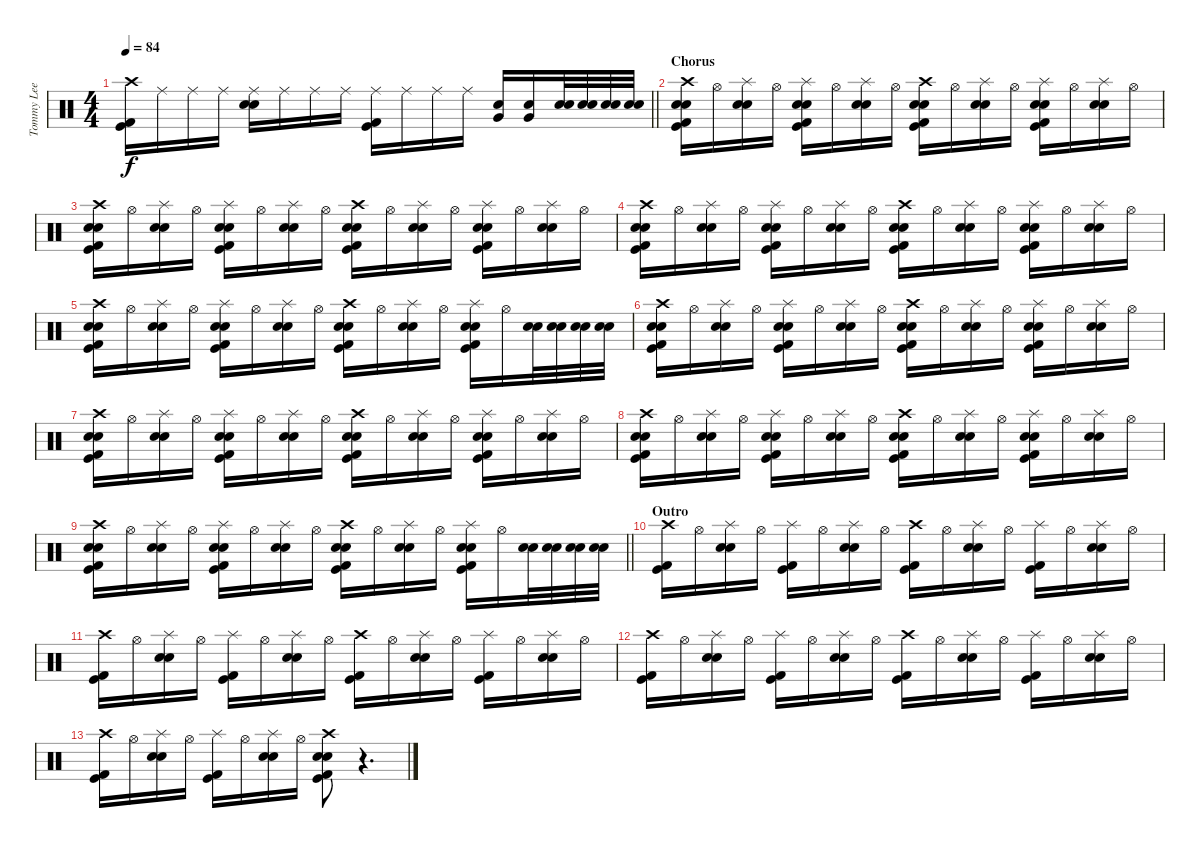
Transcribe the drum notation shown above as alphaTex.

\track ("Tommy Lee" "Tommy Lee") {instrument percussion}
\staff {score}
\articulation defaults
\ts (4 4)
\tempo 84
\clef neutral
\barLineRight lightlight
\ks c
("Crash high (hit)" "Kick (hit) 2" "Kick (hit)").16{dy f} "Ride (middle)".16 "Ride (middle)".16 "Ride (middle)".16 ("Ride (middle)" "Electric Snare (hit)" "Snare (hit) 2").16 "Ride (middle)".16 "Ride (middle)".16 "Ride (middle)".16 ("Ride (middle)" "Kick (hit) 2" "Kick (hit)").16 "Ride (middle)".16 "Ride (middle)".16 "Ride (middle)".16 ("Very Low Tom (hit)" "Snare (hit) 2").16 ("Very Low Tom (hit)" "Snare (hit) 2").16 ("Electric Snare (hit)" "Snare (hit) 2").32 ("Electric Snare (hit)" "Snare (hit) 2").32 ("Electric Snare (hit)" "Snare (hit) 2").32 ("Electric Snare (hit)" "Snare (hit) 2").32 |
\section ("" "Chorus")
("Crash high (hit)" "Electric Snare (hit)" "Snare (hit) 2" "Kick (hit) 2" "Kick (hit)").16 "Hi-Hat (open)".16 ("Splash (hit)" "Electric Snare (hit)" "Snare (hit) 2").16 "Hi-Hat (open)".16 ("Splash (hit)" "Electric Snare (hit)" "Snare (hit) 2" "Kick (hit) 2" "Kick (hit)").16 "Hi-Hat (open)".16 ("Splash (hit)" "Electric Snare (hit)" "Snare (hit) 2").16 "Hi-Hat (open)".16 ("Crash high (hit)" "Electric Snare (hit)" "Snare (hit) 2" "Kick (hit) 2" "Kick (hit)").16 "Hi-Hat (open)".16 ("Splash (hit)" "Electric Snare (hit)" "Snare (hit) 2").16 "Hi-Hat (open)".16 ("Splash (hit)" "Electric Snare (hit)" "Snare (hit) 2" "Kick (hit) 2" "Kick (hit)").16 "Hi-Hat (open)".16 ("Splash (hit)" "Electric Snare (hit)" "Snare (hit) 2").16 "Hi-Hat (open)".16 |
("Crash high (hit)" "Electric Snare (hit)" "Snare (hit) 2" "Kick (hit) 2" "Kick (hit)").16 "Hi-Hat (open)".16 ("Splash (hit)" "Electric Snare (hit)" "Snare (hit) 2").16 "Hi-Hat (open)".16 ("Splash (hit)" "Electric Snare (hit)" "Snare (hit) 2" "Kick (hit) 2" "Kick (hit)").16 "Hi-Hat (open)".16 ("Splash (hit)" "Electric Snare (hit)" "Snare (hit) 2").16 "Hi-Hat (open)".16 ("Crash high (hit)" "Electric Snare (hit)" "Snare (hit) 2" "Kick (hit) 2" "Kick (hit)").16 "Hi-Hat (open)".16 ("Splash (hit)" "Electric Snare (hit)" "Snare (hit) 2").16 "Hi-Hat (open)".16 ("Splash (hit)" "Electric Snare (hit)" "Snare (hit) 2" "Kick (hit) 2" "Kick (hit)").16 "Hi-Hat (open)".16 ("Splash (hit)" "Electric Snare (hit)" "Snare (hit) 2").16 "Hi-Hat (open)".16 |
("Crash high (hit)" "Electric Snare (hit)" "Snare (hit) 2" "Kick (hit) 2" "Kick (hit)").16 "Hi-Hat (open)".16 ("Splash (hit)" "Electric Snare (hit)" "Snare (hit) 2").16 "Hi-Hat (open)".16 ("Splash (hit)" "Electric Snare (hit)" "Snare (hit) 2" "Kick (hit) 2" "Kick (hit)").16 "Hi-Hat (open)".16 ("Splash (hit)" "Electric Snare (hit)" "Snare (hit) 2").16 "Hi-Hat (open)".16 ("Crash high (hit)" "Electric Snare (hit)" "Snare (hit) 2" "Kick (hit) 2" "Kick (hit)").16 "Hi-Hat (open)".16 ("Splash (hit)" "Electric Snare (hit)" "Snare (hit) 2").16 "Hi-Hat (open)".16 ("Splash (hit)" "Electric Snare (hit)" "Snare (hit) 2" "Kick (hit) 2" "Kick (hit)").16 "Hi-Hat (open)".16 ("Splash (hit)" "Electric Snare (hit)" "Snare (hit) 2").16 "Hi-Hat (open)".16 |
("Crash high (hit)" "Electric Snare (hit)" "Snare (hit) 2" "Kick (hit) 2" "Kick (hit)").16 "Hi-Hat (open)".16 ("Splash (hit)" "Electric Snare (hit)" "Snare (hit) 2").16 "Hi-Hat (open)".16 ("Splash (hit)" "Electric Snare (hit)" "Snare (hit) 2" "Kick (hit) 2" "Kick (hit)").16 "Hi-Hat (open)".16 ("Splash (hit)" "Electric Snare (hit)" "Snare (hit) 2").16 "Hi-Hat (open)".16 ("Crash high (hit)" "Electric Snare (hit)" "Snare (hit) 2" "Kick (hit) 2" "Kick (hit)").16 "Hi-Hat (open)".16 ("Splash (hit)" "Electric Snare (hit)" "Snare (hit) 2").16 "Hi-Hat (open)".16 ("Splash (hit)" "Electric Snare (hit)" "Snare (hit) 2" "Kick (hit) 2" "Kick (hit)").16 "Hi-Hat (open)".16 ("Electric Snare (hit)" "Snare (hit) 2").32 ("Electric Snare (hit)" "Snare (hit) 2").32 ("Electric Snare (hit)" "Snare (hit) 2").32 ("Electric Snare (hit)" "Snare (hit) 2").32 |
("Crash high (hit)" "Electric Snare (hit)" "Snare (hit) 2" "Kick (hit) 2" "Kick (hit)").16 "Hi-Hat (open)".16 ("Splash (hit)" "Electric Snare (hit)" "Snare (hit) 2").16 "Hi-Hat (open)".16 ("Splash (hit)" "Electric Snare (hit)" "Snare (hit) 2" "Kick (hit) 2" "Kick (hit)").16 "Hi-Hat (open)".16 ("Splash (hit)" "Electric Snare (hit)" "Snare (hit) 2").16 "Hi-Hat (open)".16 ("Crash high (hit)" "Electric Snare (hit)" "Snare (hit) 2" "Kick (hit) 2" "Kick (hit)").16 "Hi-Hat (open)".16 ("Splash (hit)" "Electric Snare (hit)" "Snare (hit) 2").16 "Hi-Hat (open)".16 ("Splash (hit)" "Electric Snare (hit)" "Snare (hit) 2" "Kick (hit) 2" "Kick (hit)").16 "Hi-Hat (open)".16 ("Splash (hit)" "Electric Snare (hit)" "Snare (hit) 2").16 "Hi-Hat (open)".16 |
("Crash high (hit)" "Electric Snare (hit)" "Snare (hit) 2" "Kick (hit) 2" "Kick (hit)").16 "Hi-Hat (open)".16 ("Splash (hit)" "Electric Snare (hit)" "Snare (hit) 2").16 "Hi-Hat (open)".16 ("Splash (hit)" "Electric Snare (hit)" "Snare (hit) 2" "Kick (hit) 2" "Kick (hit)").16 "Hi-Hat (open)".16 ("Splash (hit)" "Electric Snare (hit)" "Snare (hit) 2").16 "Hi-Hat (open)".16 ("Crash high (hit)" "Electric Snare (hit)" "Snare (hit) 2" "Kick (hit) 2" "Kick (hit)").16 "Hi-Hat (open)".16 ("Splash (hit)" "Electric Snare (hit)" "Snare (hit) 2").16 "Hi-Hat (open)".16 ("Splash (hit)" "Electric Snare (hit)" "Snare (hit) 2" "Kick (hit) 2" "Kick (hit)").16 "Hi-Hat (open)".16 ("Splash (hit)" "Electric Snare (hit)" "Snare (hit) 2").16 "Hi-Hat (open)".16 |
("Crash high (hit)" "Electric Snare (hit)" "Snare (hit) 2" "Kick (hit) 2" "Kick (hit)").16 "Hi-Hat (open)".16 ("Splash (hit)" "Electric Snare (hit)" "Snare (hit) 2").16 "Hi-Hat (open)".16 ("Splash (hit)" "Electric Snare (hit)" "Snare (hit) 2" "Kick (hit) 2" "Kick (hit)").16 "Hi-Hat (open)".16 ("Splash (hit)" "Electric Snare (hit)" "Snare (hit) 2").16 "Hi-Hat (open)".16 ("Crash high (hit)" "Electric Snare (hit)" "Snare (hit) 2" "Kick (hit) 2" "Kick (hit)").16 "Hi-Hat (open)".16 ("Splash (hit)" "Electric Snare (hit)" "Snare (hit) 2").16 "Hi-Hat (open)".16 ("Splash (hit)" "Electric Snare (hit)" "Snare (hit) 2" "Kick (hit) 2" "Kick (hit)").16 "Hi-Hat (open)".16 ("Splash (hit)" "Electric Snare (hit)" "Snare (hit) 2").16 "Hi-Hat (open)".16 |
\barLineRight lightlight
("Crash high (hit)" "Electric Snare (hit)" "Snare (hit) 2" "Kick (hit) 2" "Kick (hit)").16 "Hi-Hat (open)".16 ("Splash (hit)" "Electric Snare (hit)" "Snare (hit) 2").16 "Hi-Hat (open)".16 ("Splash (hit)" "Electric Snare (hit)" "Snare (hit) 2" "Kick (hit) 2" "Kick (hit)").16 "Hi-Hat (open)".16 ("Splash (hit)" "Electric Snare (hit)" "Snare (hit) 2").16 "Hi-Hat (open)".16 ("Crash high (hit)" "Electric Snare (hit)" "Snare (hit) 2" "Kick (hit) 2" "Kick (hit)").16 "Hi-Hat (open)".16 ("Splash (hit)" "Electric Snare (hit)" "Snare (hit) 2").16 "Hi-Hat (open)".16 ("Splash (hit)" "Electric Snare (hit)" "Snare (hit) 2" "Kick (hit) 2" "Kick (hit)").16 "Hi-Hat (open)".16 ("Electric Snare (hit)" "Snare (hit) 2").32 ("Electric Snare (hit)" "Snare (hit) 2").32 ("Electric Snare (hit)" "Snare (hit) 2").32 ("Electric Snare (hit)" "Snare (hit) 2").32 |
\section ("" "Outro")
("Crash high (hit)" "Kick (hit) 2" "Kick (hit)").16 "Hi-Hat (open)".16 ("Splash (hit)" "Electric Snare (hit)" "Snare (hit) 2").16 "Hi-Hat (open)".16 ("Splash (hit)" "Kick (hit) 2" "Kick (hit)").16 "Hi-Hat (open)".16 ("Splash (hit)" "Electric Snare (hit)" "Snare (hit) 2").16 "Hi-Hat (open)".16 ("Crash high (hit)" "Kick (hit) 2" "Kick (hit)").16 "Hi-Hat (open)".16 ("Splash (hit)" "Electric Snare (hit)" "Snare (hit) 2").16 "Hi-Hat (open)".16 ("Splash (hit)" "Kick (hit) 2" "Kick (hit)").16 "Hi-Hat (open)".16 ("Splash (hit)" "Electric Snare (hit)" "Snare (hit) 2").16 "Hi-Hat (open)".16 |
("Crash high (hit)" "Kick (hit) 2" "Kick (hit)").16 "Hi-Hat (open)".16 ("Splash (hit)" "Electric Snare (hit)" "Snare (hit) 2").16 "Hi-Hat (open)".16 ("Splash (hit)" "Kick (hit) 2" "Kick (hit)").16 "Hi-Hat (open)".16 ("Splash (hit)" "Electric Snare (hit)" "Snare (hit) 2").16 "Hi-Hat (open)".16 ("Crash high (hit)" "Kick (hit) 2" "Kick (hit)").16 "Hi-Hat (open)".16 ("Splash (hit)" "Electric Snare (hit)" "Snare (hit) 2").16 "Hi-Hat (open)".16 ("Splash (hit)" "Kick (hit) 2" "Kick (hit)").16 "Hi-Hat (open)".16 ("Splash (hit)" "Electric Snare (hit)" "Snare (hit) 2").16 "Hi-Hat (open)".16 |
("Crash high (hit)" "Kick (hit) 2" "Kick (hit)").16 "Hi-Hat (open)".16 ("Splash (hit)" "Electric Snare (hit)" "Snare (hit) 2").16 "Hi-Hat (open)".16 ("Splash (hit)" "Kick (hit) 2" "Kick (hit)").16 "Hi-Hat (open)".16 ("Splash (hit)" "Electric Snare (hit)" "Snare (hit) 2").16 "Hi-Hat (open)".16 ("Crash high (hit)" "Kick (hit) 2" "Kick (hit)").16 "Hi-Hat (open)".16 ("Splash (hit)" "Electric Snare (hit)" "Snare (hit) 2").16 "Hi-Hat (open)".16 ("Splash (hit)" "Kick (hit) 2" "Kick (hit)").16 "Hi-Hat (open)".16 ("Splash (hit)" "Electric Snare (hit)" "Snare (hit) 2").16 "Hi-Hat (open)".16 |
("Crash high (hit)" "Kick (hit) 2" "Kick (hit)").16 "Hi-Hat (open)".16 ("Splash (hit)" "Electric Snare (hit)" "Snare (hit) 2").16 "Hi-Hat (open)".16 ("Splash (hit)" "Kick (hit) 2" "Kick (hit)").16 "Hi-Hat (open)".16 ("Splash (hit)" "Electric Snare (hit)" "Snare (hit) 2").16 "Hi-Hat (open)".16 ("Crash high (hit)" "Electric Snare (hit)" "Snare (hit) 2" "Kick (hit) 2" "Kick (hit)").8 r.4{d}
